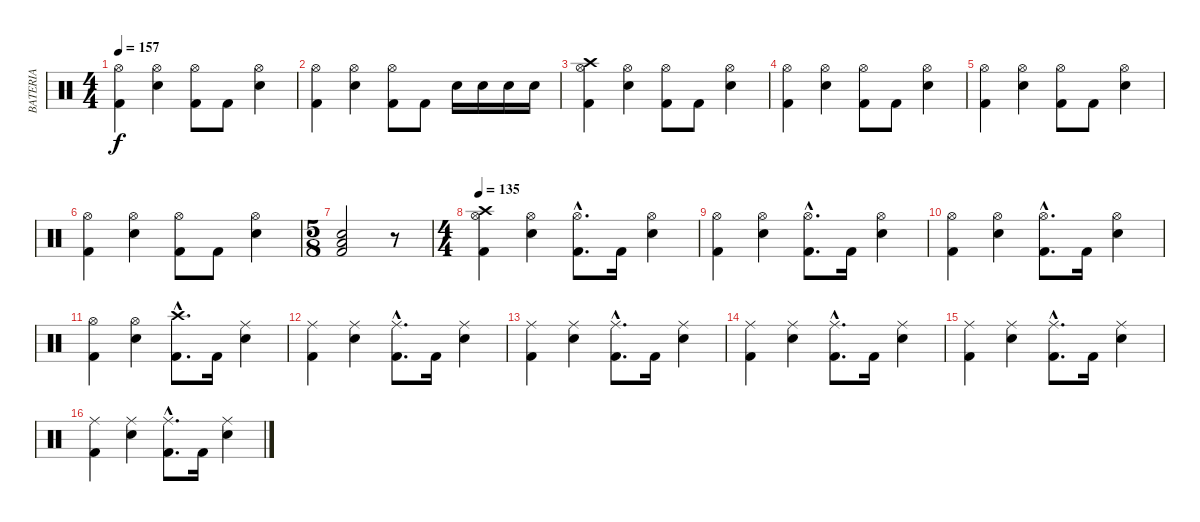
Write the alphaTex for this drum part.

\track ("BATERIA" "BATERIA") {instrument percussion}
\staff {score}
\articulation defaults
\ts (4 4)
\tempo 157
\clef neutral
\ks c
("Hi-Hat (open)" "Kick (hit) 2").4{dy f} ("Hi-Hat (open)" "Snare (hit) 2").4 ("Hi-Hat (open)" "Kick (hit) 2").8 "Kick (hit) 2".8 ("Hi-Hat (open)" "Snare (hit) 2").4 |
("Hi-Hat (open)" "Kick (hit) 2").4 ("Hi-Hat (open)" "Snare (hit) 2").4 ("Hi-Hat (open)" "Kick (hit) 2").8 "Kick (hit) 2".8 "Snare (hit) 2".16 "Snare (hit) 2".16 "Snare (hit) 2".16 "Snare (hit) 2".16 |
("Crash high (hit)" "Hi-Hat (open)" "Kick (hit) 2").4 ("Hi-Hat (open)" "Snare (hit) 2").4 ("Hi-Hat (open)" "Kick (hit) 2").8 "Kick (hit) 2".8 ("Hi-Hat (open)" "Snare (hit) 2").4 |
("Hi-Hat (open)" "Kick (hit) 2").4 ("Hi-Hat (open)" "Snare (hit) 2").4 ("Hi-Hat (open)" "Kick (hit) 2").8 "Kick (hit) 2".8 ("Hi-Hat (open)" "Snare (hit) 2").4 |
("Hi-Hat (open)" "Kick (hit) 2").4 ("Hi-Hat (open)" "Snare (hit) 2").4 ("Hi-Hat (open)" "Kick (hit) 2").8 "Kick (hit) 2".8 ("Hi-Hat (open)" "Snare (hit) 2").4 |
("Hi-Hat (open)" "Kick (hit) 2").4 ("Hi-Hat (open)" "Snare (hit) 2").4 ("Hi-Hat (open)" "Kick (hit) 2").8 "Kick (hit) 2".8 ("Hi-Hat (open)" "Snare (hit) 2").4 |
\ts (5 8)
("Snare (hit) 2" "Low Floor Tom (hit)" "Kick (hit) 2").2 r.8 |
\ts (4 4)
\tempo 135
("Crash high (hit)" "Hi-Hat (open)" "Kick (hit) 2").4 ("Hi-Hat (open)" "Snare (hit) 2").4 ("Hi-Hat (open)"{hac} "Kick (hit) 2"{hac}).8{d} "Kick (hit) 2".16 ("Hi-Hat (open)" "Snare (hit) 2").4 |
("Hi-Hat (open)" "Kick (hit) 2").4 ("Hi-Hat (open)" "Snare (hit) 2").4 ("Hi-Hat (open)"{hac} "Kick (hit) 2"{hac}).8{d} "Kick (hit) 2".16 ("Hi-Hat (open)" "Snare (hit) 2").4 |
("Hi-Hat (open)" "Kick (hit) 2").4 ("Hi-Hat (open)" "Snare (hit) 2").4 ("Hi-Hat (open)"{hac} "Kick (hit) 2"{hac}).8{d} "Kick (hit) 2".16 ("Hi-Hat (open)" "Snare (hit) 2").4 |
("Hi-Hat (open)" "Kick (hit) 2").4 ("Hi-Hat (open)" "Snare (hit) 2").4 ("Crash high (hit)"{hac} "Kick (hit) 2"{hac}).8{d} "Kick (hit) 2".16 ("Ride (middle)" "Snare (hit) 2").4 |
("Ride (middle)" "Kick (hit) 2").4 ("Ride (middle)" "Snare (hit) 2").4 ("Ride (middle)"{hac} "Kick (hit) 2"{hac}).8{d} "Kick (hit) 2".16 ("Ride (middle)" "Snare (hit) 2").4 |
("Ride (middle)" "Kick (hit) 2").4 ("Ride (middle)" "Snare (hit) 2").4 ("Ride (middle)"{hac} "Kick (hit) 2"{hac}).8{d} "Kick (hit) 2".16 ("Ride (middle)" "Snare (hit) 2").4 |
("Ride (middle)" "Kick (hit) 2").4 ("Ride (middle)" "Snare (hit) 2").4 ("Ride (middle)"{hac} "Kick (hit) 2"{hac}).8{d} "Kick (hit) 2".16 ("Ride (middle)" "Snare (hit) 2").4 |
("Ride (middle)" "Kick (hit) 2").4 ("Ride (middle)" "Snare (hit) 2").4 ("Ride (middle)"{hac} "Kick (hit) 2"{hac}).8{d} "Kick (hit) 2".16 ("Ride (middle)" "Snare (hit) 2").4 |
("Ride (middle)" "Kick (hit) 2").4 ("Ride (middle)" "Snare (hit) 2").4 ("Ride (middle)"{hac} "Kick (hit) 2"{hac}).8{d} "Kick (hit) 2".16 ("Ride (middle)" "Snare (hit) 2").4
